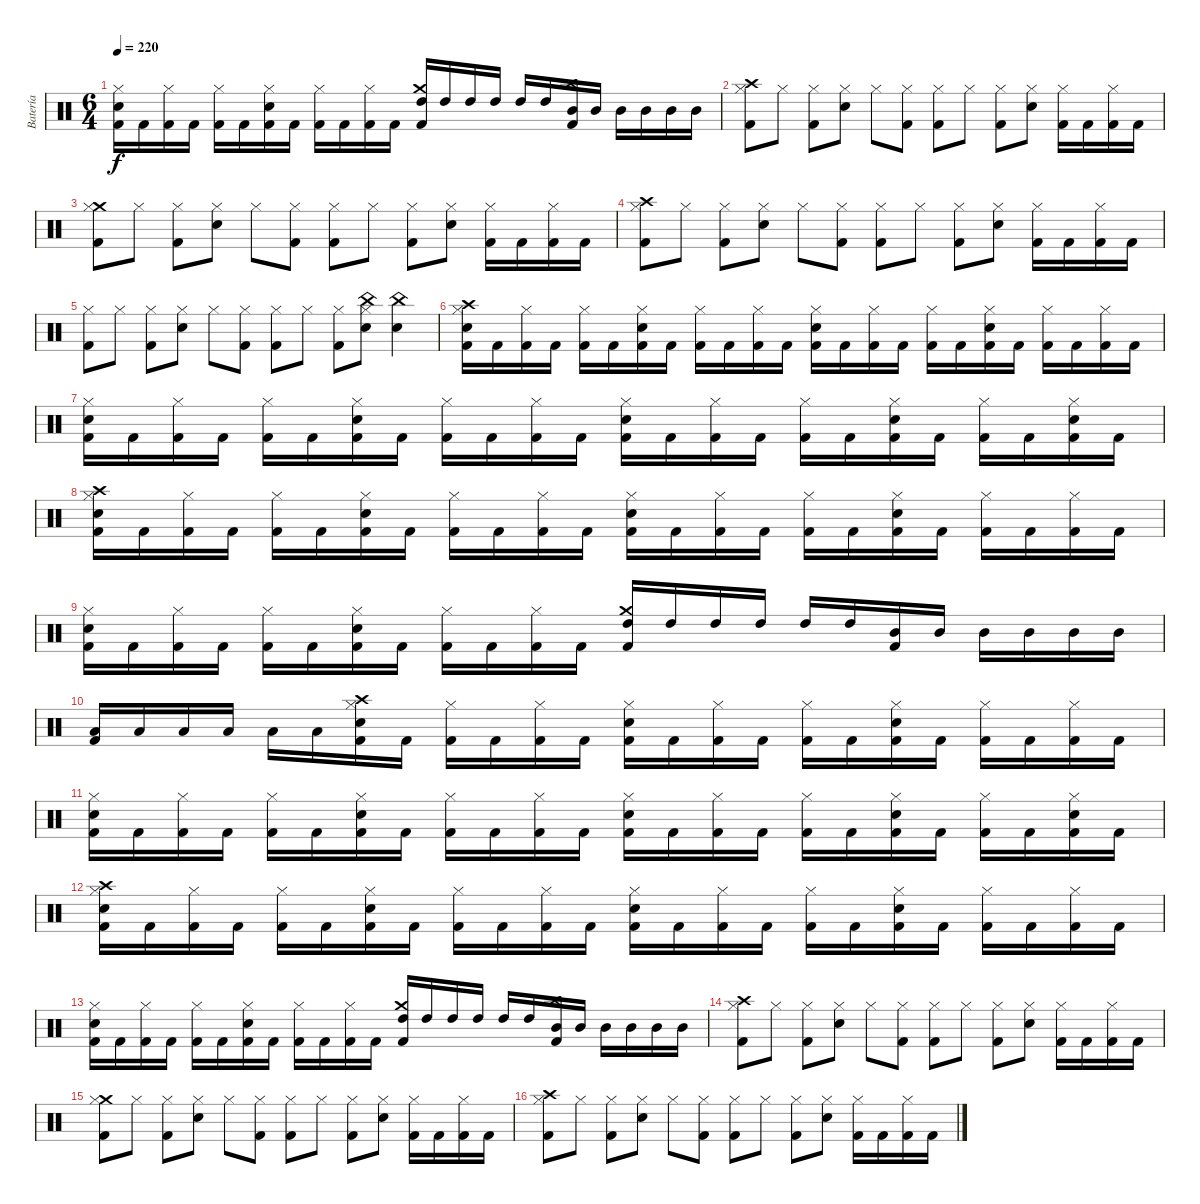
\track ("Batería" "Batería") {instrument percussion}
\staff {score}
\articulation defaults
\ts (6 4)
\tempo 220
\clef neutral
\ks c
("Electric Snare (hit)" "Hi-Hat (closed)" "Kick (hit) 2").16{dy f} "Kick (hit) 2".16 ("Hi-Hat (closed)" "Kick (hit) 2").16 "Kick (hit) 2".16 ("Hi-Hat (closed)" "Kick (hit) 2").16 "Kick (hit) 2".16 ("Electric Snare (hit)" "Hi-Hat (closed)" "Kick (hit) 2").16 "Kick (hit) 2".16 ("Hi-Hat (closed)" "Kick (hit) 2").16 "Kick (hit) 2".16 ("Hi-Hat (closed)" "Kick (hit) 2").16 "Kick (hit) 2".16 ("Crash medium (hit)" "Kick (hit) 2" "High Tom (hit)").16 "High Tom (hit)".16 "High Tom (hit)".16 "High Tom (hit)".16 "High Tom (hit)".16 "High Tom (hit)".16 ("Crash high (hit)" "Kick (hit) 2" "Mid Tom (hit)").16 "Mid Tom (hit)".16 "Mid Tom (hit)".16 "Mid Tom (hit)".16 "Mid Tom (hit)".16 "Mid Tom (hit)".16 |
("Crash high (hit)" "Kick (hit) 2" "Hi-Hat (closed)").8 "Hi-Hat (closed)".8 ("Kick (hit) 2" "Hi-Hat (closed)").8 ("Electric Snare (hit)" "Hi-Hat (closed)").8 "Hi-Hat (closed)".8 ("Kick (hit) 2" "Hi-Hat (closed)").8 ("Kick (hit) 2" "Hi-Hat (closed)").8 "Hi-Hat (closed)".8 ("Kick (hit) 2" "Hi-Hat (closed)").8 ("Electric Snare (hit)" "Hi-Hat (closed)").8 ("Hi-Hat (closed)" "Kick (hit) 2").16 "Kick (hit) 2".16 ("Hi-Hat (closed)" "Kick (hit) 2").16 "Kick (hit) 2".16 |
("Crash medium (hit)" "Kick (hit) 2" "Hi-Hat (closed)").8 "Hi-Hat (closed)".8 ("Kick (hit) 2" "Hi-Hat (closed)").8 ("Electric Snare (hit)" "Hi-Hat (closed)").8 "Hi-Hat (closed)".8 ("Kick (hit) 2" "Hi-Hat (closed)").8 ("Kick (hit) 2" "Hi-Hat (closed)").8 "Hi-Hat (closed)".8 ("Kick (hit) 2" "Hi-Hat (closed)").8 ("Electric Snare (hit)" "Hi-Hat (closed)").8 ("Hi-Hat (closed)" "Kick (hit) 2").16 "Kick (hit) 2".16 ("Hi-Hat (closed)" "Kick (hit) 2").16 "Kick (hit) 2".16 |
("Crash high (hit)" "Kick (hit) 2" "Hi-Hat (closed)").8 "Hi-Hat (closed)".8 ("Kick (hit) 2" "Hi-Hat (closed)").8 ("Electric Snare (hit)" "Hi-Hat (closed)").8 "Hi-Hat (closed)".8 ("Kick (hit) 2" "Hi-Hat (closed)").8 ("Kick (hit) 2" "Hi-Hat (closed)").8 "Hi-Hat (closed)".8 ("Kick (hit) 2" "Hi-Hat (closed)").8 ("Electric Snare (hit)" "Hi-Hat (closed)").8 ("Hi-Hat (closed)" "Kick (hit) 2").16 "Kick (hit) 2".16 ("Hi-Hat (closed)" "Kick (hit) 2").16 "Kick (hit) 2".16 |
("Kick (hit) 2" "Hi-Hat (closed)").8 "Hi-Hat (closed)".8 ("Kick (hit) 2" "Hi-Hat (closed)").8 ("Electric Snare (hit)" "Hi-Hat (closed)").8 "Hi-Hat (closed)".8 ("Kick (hit) 2" "Hi-Hat (closed)").8 ("Kick (hit) 2" "Hi-Hat (closed)").8 "Hi-Hat (closed)".8 ("Kick (hit) 2" "Hi-Hat (closed)").8 ("China (hit)" "Electric Snare (hit)" "Hi-Hat (closed)").8 ("China (hit)" "Electric Snare (hit)").4 |
("Crash high (hit)" "Electric Snare (hit)" "Hi-Hat (closed)" "Kick (hit) 2").16 "Kick (hit) 2".16 ("Hi-Hat (closed)" "Kick (hit) 2").16 "Kick (hit) 2".16 ("Hi-Hat (closed)" "Kick (hit) 2").16 "Kick (hit) 2".16 ("Electric Snare (hit)" "Hi-Hat (closed)" "Kick (hit) 2").16 "Kick (hit) 2".16 ("Hi-Hat (closed)" "Kick (hit) 2").16 "Kick (hit) 2".16 ("Hi-Hat (closed)" "Kick (hit) 2").16 "Kick (hit) 2".16 ("Electric Snare (hit)" "Hi-Hat (closed)" "Kick (hit) 2").16 "Kick (hit) 2".16 ("Hi-Hat (closed)" "Kick (hit) 2").16 "Kick (hit) 2".16 ("Hi-Hat (closed)" "Kick (hit) 2").16 "Kick (hit) 2".16 ("Electric Snare (hit)" "Hi-Hat (closed)" "Kick (hit) 2").16 "Kick (hit) 2".16 ("Hi-Hat (closed)" "Kick (hit) 2").16 "Kick (hit) 2".16 ("Hi-Hat (closed)" "Kick (hit) 2").16 "Kick (hit) 2".16 |
("Electric Snare (hit)" "Hi-Hat (closed)" "Kick (hit) 2").16 "Kick (hit) 2".16 ("Hi-Hat (closed)" "Kick (hit) 2").16 "Kick (hit) 2".16 ("Hi-Hat (closed)" "Kick (hit) 2").16 "Kick (hit) 2".16 ("Electric Snare (hit)" "Hi-Hat (closed)" "Kick (hit) 2").16 "Kick (hit) 2".16 ("Hi-Hat (closed)" "Kick (hit) 2").16 "Kick (hit) 2".16 ("Hi-Hat (closed)" "Kick (hit) 2").16 "Kick (hit) 2".16 ("Electric Snare (hit)" "Hi-Hat (closed)" "Kick (hit) 2").16 "Kick (hit) 2".16 ("Hi-Hat (closed)" "Kick (hit) 2").16 "Kick (hit) 2".16 ("Hi-Hat (closed)" "Kick (hit) 2").16 "Kick (hit) 2".16 ("Electric Snare (hit)" "Hi-Hat (closed)" "Kick (hit) 2").16 "Kick (hit) 2".16 ("Hi-Hat (closed)" "Kick (hit) 2").16 "Kick (hit) 2".16 ("Electric Snare (hit)" "Hi-Hat (closed)" "Kick (hit) 2").16 "Kick (hit) 2".16 |
("Crash high (hit)" "Electric Snare (hit)" "Hi-Hat (closed)" "Kick (hit) 2").16 "Kick (hit) 2".16 ("Hi-Hat (closed)" "Kick (hit) 2").16 "Kick (hit) 2".16 ("Hi-Hat (closed)" "Kick (hit) 2").16 "Kick (hit) 2".16 ("Electric Snare (hit)" "Hi-Hat (closed)" "Kick (hit) 2").16 "Kick (hit) 2".16 ("Hi-Hat (closed)" "Kick (hit) 2").16 "Kick (hit) 2".16 ("Hi-Hat (closed)" "Kick (hit) 2").16 "Kick (hit) 2".16 ("Electric Snare (hit)" "Hi-Hat (closed)" "Kick (hit) 2").16 "Kick (hit) 2".16 ("Hi-Hat (closed)" "Kick (hit) 2").16 "Kick (hit) 2".16 ("Hi-Hat (closed)" "Kick (hit) 2").16 "Kick (hit) 2".16 ("Electric Snare (hit)" "Hi-Hat (closed)" "Kick (hit) 2").16 "Kick (hit) 2".16 ("Hi-Hat (closed)" "Kick (hit) 2").16 "Kick (hit) 2".16 ("Hi-Hat (closed)" "Kick (hit) 2").16 "Kick (hit) 2".16 |
("Electric Snare (hit)" "Hi-Hat (closed)" "Kick (hit) 2").16 "Kick (hit) 2".16 ("Hi-Hat (closed)" "Kick (hit) 2").16 "Kick (hit) 2".16 ("Hi-Hat (closed)" "Kick (hit) 2").16 "Kick (hit) 2".16 ("Electric Snare (hit)" "Hi-Hat (closed)" "Kick (hit) 2").16 "Kick (hit) 2".16 ("Hi-Hat (closed)" "Kick (hit) 2").16 "Kick (hit) 2".16 ("Hi-Hat (closed)" "Kick (hit) 2").16 "Kick (hit) 2".16 ("Crash medium (hit)" "Kick (hit) 2" "High Tom (hit)").16 "High Tom (hit)".16 "High Tom (hit)".16 "High Tom (hit)".16 "High Tom (hit)".16 "High Tom (hit)".16 ("Kick (hit) 2" "Mid Tom (hit)").16 "Mid Tom (hit)".16 "Mid Tom (hit)".16 "Mid Tom (hit)".16 "Mid Tom (hit)".16 "Mid Tom (hit)".16 |
("Kick (hit) 2" "Low Tom (hit)").16 "Low Tom (hit)".16 "Low Tom (hit)".16 "Low Tom (hit)".16 "Low Tom (hit)".16 "Low Tom (hit)".16 ("Crash high (hit)" "Electric Snare (hit)" "Hi-Hat (closed)" "Kick (hit) 2").16 "Kick (hit) 2".16 ("Hi-Hat (closed)" "Kick (hit) 2").16 "Kick (hit) 2".16 ("Hi-Hat (closed)" "Kick (hit) 2").16 "Kick (hit) 2".16 ("Electric Snare (hit)" "Hi-Hat (closed)" "Kick (hit) 2").16 "Kick (hit) 2".16 ("Hi-Hat (closed)" "Kick (hit) 2").16 "Kick (hit) 2".16 ("Hi-Hat (closed)" "Kick (hit) 2").16 "Kick (hit) 2".16 ("Electric Snare (hit)" "Hi-Hat (closed)" "Kick (hit) 2").16 "Kick (hit) 2".16 ("Hi-Hat (closed)" "Kick (hit) 2").16 "Kick (hit) 2".16 ("Hi-Hat (closed)" "Kick (hit) 2").16 "Kick (hit) 2".16 |
("Electric Snare (hit)" "Hi-Hat (closed)" "Kick (hit) 2").16 "Kick (hit) 2".16 ("Hi-Hat (closed)" "Kick (hit) 2").16 "Kick (hit) 2".16 ("Hi-Hat (closed)" "Kick (hit) 2").16 "Kick (hit) 2".16 ("Electric Snare (hit)" "Hi-Hat (closed)" "Kick (hit) 2").16 "Kick (hit) 2".16 ("Hi-Hat (closed)" "Kick (hit) 2").16 "Kick (hit) 2".16 ("Hi-Hat (closed)" "Kick (hit) 2").16 "Kick (hit) 2".16 ("Electric Snare (hit)" "Hi-Hat (closed)" "Kick (hit) 2").16 "Kick (hit) 2".16 ("Hi-Hat (closed)" "Kick (hit) 2").16 "Kick (hit) 2".16 ("Hi-Hat (closed)" "Kick (hit) 2").16 "Kick (hit) 2".16 ("Electric Snare (hit)" "Hi-Hat (closed)" "Kick (hit) 2").16 "Kick (hit) 2".16 ("Hi-Hat (closed)" "Kick (hit) 2").16 "Kick (hit) 2".16 ("Electric Snare (hit)" "Hi-Hat (closed)" "Kick (hit) 2").16 "Kick (hit) 2".16 |
("Crash high (hit)" "Electric Snare (hit)" "Hi-Hat (closed)" "Kick (hit) 2").16 "Kick (hit) 2".16 ("Hi-Hat (closed)" "Kick (hit) 2").16 "Kick (hit) 2".16 ("Hi-Hat (closed)" "Kick (hit) 2").16 "Kick (hit) 2".16 ("Electric Snare (hit)" "Hi-Hat (closed)" "Kick (hit) 2").16 "Kick (hit) 2".16 ("Hi-Hat (closed)" "Kick (hit) 2").16 "Kick (hit) 2".16 ("Hi-Hat (closed)" "Kick (hit) 2").16 "Kick (hit) 2".16 ("Electric Snare (hit)" "Hi-Hat (closed)" "Kick (hit) 2").16 "Kick (hit) 2".16 ("Hi-Hat (closed)" "Kick (hit) 2").16 "Kick (hit) 2".16 ("Hi-Hat (closed)" "Kick (hit) 2").16 "Kick (hit) 2".16 ("Electric Snare (hit)" "Hi-Hat (closed)" "Kick (hit) 2").16 "Kick (hit) 2".16 ("Hi-Hat (closed)" "Kick (hit) 2").16 "Kick (hit) 2".16 ("Hi-Hat (closed)" "Kick (hit) 2").16 "Kick (hit) 2".16 |
("Electric Snare (hit)" "Hi-Hat (closed)" "Kick (hit) 2").16 "Kick (hit) 2".16 ("Hi-Hat (closed)" "Kick (hit) 2").16 "Kick (hit) 2".16 ("Hi-Hat (closed)" "Kick (hit) 2").16 "Kick (hit) 2".16 ("Electric Snare (hit)" "Hi-Hat (closed)" "Kick (hit) 2").16 "Kick (hit) 2".16 ("Hi-Hat (closed)" "Kick (hit) 2").16 "Kick (hit) 2".16 ("Hi-Hat (closed)" "Kick (hit) 2").16 "Kick (hit) 2".16 ("Crash medium (hit)" "Kick (hit) 2" "High Tom (hit)").16 "High Tom (hit)".16 "High Tom (hit)".16 "High Tom (hit)".16 "High Tom (hit)".16 "High Tom (hit)".16 ("Crash high (hit)" "Kick (hit) 2" "Mid Tom (hit)").16 "Mid Tom (hit)".16 "Mid Tom (hit)".16 "Mid Tom (hit)".16 "Mid Tom (hit)".16 "Mid Tom (hit)".16 |
("Crash high (hit)" "Kick (hit) 2" "Hi-Hat (closed)").8 "Hi-Hat (closed)".8 ("Kick (hit) 2" "Hi-Hat (closed)").8 ("Electric Snare (hit)" "Hi-Hat (closed)").8 "Hi-Hat (closed)".8 ("Kick (hit) 2" "Hi-Hat (closed)").8 ("Kick (hit) 2" "Hi-Hat (closed)").8 "Hi-Hat (closed)".8 ("Kick (hit) 2" "Hi-Hat (closed)").8 ("Electric Snare (hit)" "Hi-Hat (closed)").8 ("Hi-Hat (closed)" "Kick (hit) 2").16 "Kick (hit) 2".16 ("Hi-Hat (closed)" "Kick (hit) 2").16 "Kick (hit) 2".16 |
("Crash medium (hit)" "Kick (hit) 2" "Hi-Hat (closed)").8 "Hi-Hat (closed)".8 ("Kick (hit) 2" "Hi-Hat (closed)").8 ("Electric Snare (hit)" "Hi-Hat (closed)").8 "Hi-Hat (closed)".8 ("Kick (hit) 2" "Hi-Hat (closed)").8 ("Kick (hit) 2" "Hi-Hat (closed)").8 "Hi-Hat (closed)".8 ("Kick (hit) 2" "Hi-Hat (closed)").8 ("Electric Snare (hit)" "Hi-Hat (closed)").8 ("Hi-Hat (closed)" "Kick (hit) 2").16 "Kick (hit) 2".16 ("Hi-Hat (closed)" "Kick (hit) 2").16 "Kick (hit) 2".16 |
("Crash high (hit)" "Kick (hit) 2" "Hi-Hat (closed)").8 "Hi-Hat (closed)".8 ("Kick (hit) 2" "Hi-Hat (closed)").8 ("Electric Snare (hit)" "Hi-Hat (closed)").8 "Hi-Hat (closed)".8 ("Kick (hit) 2" "Hi-Hat (closed)").8 ("Kick (hit) 2" "Hi-Hat (closed)").8 "Hi-Hat (closed)".8 ("Kick (hit) 2" "Hi-Hat (closed)").8 ("Electric Snare (hit)" "Hi-Hat (closed)").8 ("Hi-Hat (closed)" "Kick (hit) 2").16 "Kick (hit) 2".16 ("Hi-Hat (closed)" "Kick (hit) 2").16 "Kick (hit) 2".16
